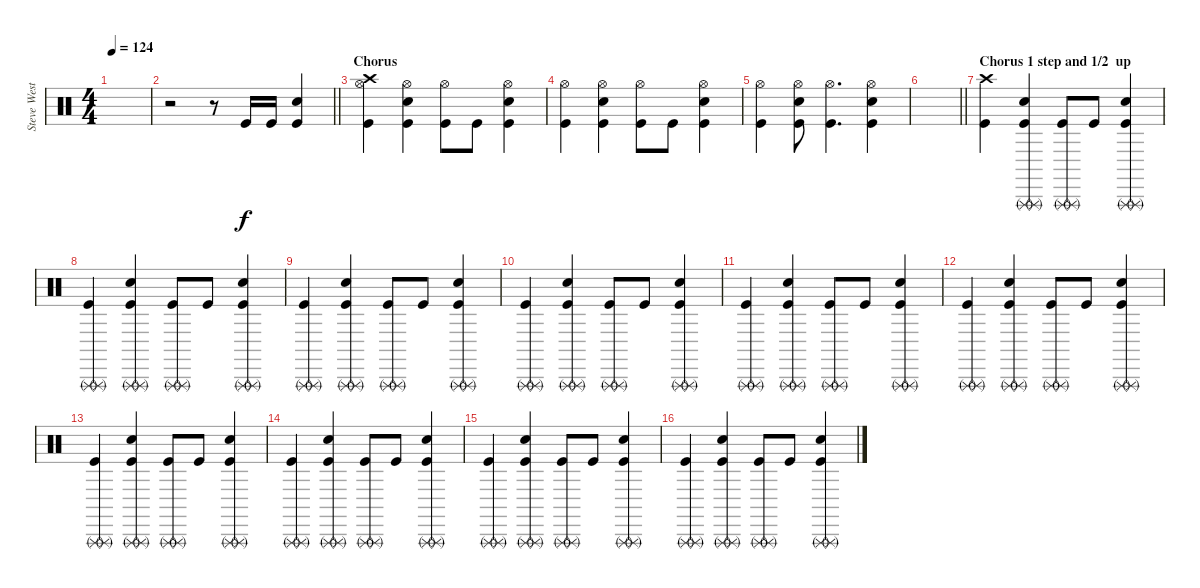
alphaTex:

\track ("Steve West" "Steve West") {instrument percussion}
\staff {score}
\articulation defaults
\ts (4 4)
\tempo 124
\clef neutral
\ks c
|
\barLineRight lightlight
r.2 r.8 "Kick (hit)".16 "Kick (hit)".16 ("Snare (hit) 2" "Kick (hit)").4 |
\section ("" "Chorus")
("Crash high (hit)" "Hi-Hat (open)" "Kick (hit)").4 ("Hi-Hat (open)" "Snare (hit) 2" "Kick (hit)").4 ("Hi-Hat (open)" "Kick (hit)").8 "Kick (hit)".8 ("Hi-Hat (open)" "Snare (hit) 2" "Kick (hit)").4 |
("Hi-Hat (open)" "Kick (hit)").4 ("Hi-Hat (open)" "Snare (hit) 2" "Kick (hit)").4 ("Hi-Hat (open)" "Kick (hit)").8 "Kick (hit)".8 ("Hi-Hat (open)" "Snare (hit) 2" "Kick (hit)").4 |
("Hi-Hat (open)" "Kick (hit)").4 ("Hi-Hat (open)" "Snare (hit) 2" "Kick (hit)").8 ("Hi-Hat (open)" "Kick (hit)").4{d} ("Hi-Hat (open)" "Snare (hit) 2" "Kick (hit)").4 |
\barLineRight lightlight
|
\section ("" "Chorus 1 step and 1/2  up")
("Crash high (hit)" "Kick (hit)").4 ("Triangle (rnute)" "Triangle (rnute)" "Snare (hit) 2" "Kick (hit)").4 ("Triangle (rnute)" "Triangle (rnute)" "Kick (hit)").8 "Kick (hit)".8 ("Triangle (rnute)" "Triangle (rnute)" "Snare (hit) 2" "Kick (hit)").4 |
("Triangle (rnute)" "Triangle (rnute)" "Kick (hit)").4 ("Triangle (rnute)" "Triangle (rnute)" "Snare (hit) 2" "Kick (hit)").4 ("Triangle (rnute)" "Triangle (rnute)" "Kick (hit)").8 "Kick (hit)".8 ("Triangle (rnute)" "Triangle (rnute)" "Snare (hit) 2" "Kick (hit)").4 |
("Triangle (rnute)" "Triangle (rnute)" "Kick (hit)").4 ("Triangle (rnute)" "Triangle (rnute)" "Snare (hit) 2" "Kick (hit)").4 ("Triangle (rnute)" "Triangle (rnute)" "Kick (hit)").8 "Kick (hit)".8 ("Triangle (rnute)" "Triangle (rnute)" "Snare (hit) 2" "Kick (hit)").4 |
("Triangle (rnute)" "Triangle (rnute)" "Kick (hit)").4 ("Triangle (rnute)" "Triangle (rnute)" "Snare (hit) 2" "Kick (hit)").4 ("Triangle (rnute)" "Triangle (rnute)" "Kick (hit)").8 "Kick (hit)".8 ("Triangle (rnute)" "Triangle (rnute)" "Snare (hit) 2" "Kick (hit)").4 |
("Triangle (rnute)" "Triangle (rnute)" "Kick (hit)").4 ("Triangle (rnute)" "Triangle (rnute)" "Snare (hit) 2" "Kick (hit)").4 ("Triangle (rnute)" "Triangle (rnute)" "Kick (hit)").8 "Kick (hit)".8 ("Triangle (rnute)" "Triangle (rnute)" "Snare (hit) 2" "Kick (hit)").4 |
("Triangle (rnute)" "Triangle (rnute)" "Kick (hit)").4 ("Triangle (rnute)" "Triangle (rnute)" "Snare (hit) 2" "Kick (hit)").4 ("Triangle (rnute)" "Triangle (rnute)" "Kick (hit)").8 "Kick (hit)".8 ("Triangle (rnute)" "Triangle (rnute)" "Snare (hit) 2" "Kick (hit)").4 |
("Triangle (rnute)" "Triangle (rnute)" "Kick (hit)").4 ("Triangle (rnute)" "Triangle (rnute)" "Snare (hit) 2" "Kick (hit)").4 ("Triangle (rnute)" "Triangle (rnute)" "Kick (hit)").8 "Kick (hit)".8 ("Triangle (rnute)" "Triangle (rnute)" "Snare (hit) 2" "Kick (hit)").4 |
("Triangle (rnute)" "Triangle (rnute)" "Kick (hit)").4 ("Triangle (rnute)" "Triangle (rnute)" "Snare (hit) 2" "Kick (hit)").4 ("Triangle (rnute)" "Triangle (rnute)" "Kick (hit)").8 "Kick (hit)".8 ("Triangle (rnute)" "Triangle (rnute)" "Snare (hit) 2" "Kick (hit)").4 |
("Triangle (rnute)" "Triangle (rnute)" "Kick (hit)").4 ("Triangle (rnute)" "Triangle (rnute)" "Snare (hit) 2" "Kick (hit)").4 ("Triangle (rnute)" "Triangle (rnute)" "Kick (hit)").8 "Kick (hit)".8 ("Triangle (rnute)" "Triangle (rnute)" "Snare (hit) 2" "Kick (hit)").4 |
("Triangle (rnute)" "Triangle (rnute)" "Kick (hit)").4 ("Triangle (rnute)" "Triangle (rnute)" "Snare (hit) 2" "Kick (hit)").4 ("Triangle (rnute)" "Triangle (rnute)" "Kick (hit)").8 "Kick (hit)".8 ("Triangle (rnute)" "Triangle (rnute)" "Snare (hit) 2" "Kick (hit)").4
